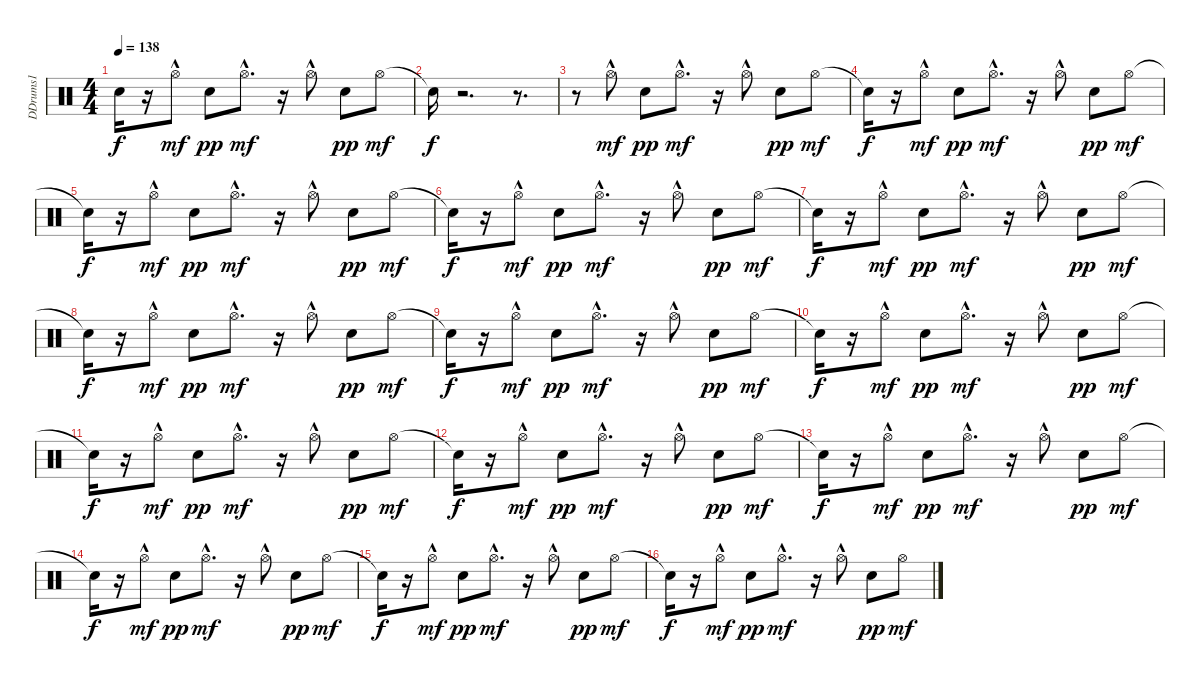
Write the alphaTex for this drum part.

\track ("DDrums1" "DDrums1") {instrument percussion}
\staff {score}
\articulation defaults
\ts (4 4)
\tempo 138
\clef neutral
\ks c "Snare (hit)"{t}.16{dy f}
r.16 "Hi-Hat (open)"{hac}.8{dy mf} "Electric Snare (hit)".8{dy pp} "Hi-Hat (open)"{hac}.8{d dy mf} r.16 "Hi-Hat (open)"{hac}.8 "Electric Snare (hit)".8{dy pp} "Hi-Hat (open)".8{dy mf} |
"Snare (hit)"{t}.16{dy f} r.2{d} r.8{d} |
r.8 "Hi-Hat (open)"{hac}.8{dy mf} "Electric Snare (hit)".8{dy pp} "Hi-Hat (open)"{hac}.8{d dy mf} r.16 "Hi-Hat (open)"{hac}.8 "Electric Snare (hit)".8{dy pp} "Hi-Hat (open)".8{dy mf} |
"Snare (hit)"{t}.16{dy f} r.16 "Hi-Hat (open)"{hac}.8{dy mf} "Electric Snare (hit)".8{dy pp} "Hi-Hat (open)"{hac}.8{d dy mf} r.16 "Hi-Hat (open)"{hac}.8 "Electric Snare (hit)".8{dy pp} "Hi-Hat (open)".8{dy mf} |
"Snare (hit)"{t}.16{dy f} r.16 "Hi-Hat (open)"{hac}.8{dy mf} "Electric Snare (hit)".8{dy pp} "Hi-Hat (open)"{hac}.8{d dy mf} r.16 "Hi-Hat (open)"{hac}.8 "Electric Snare (hit)".8{dy pp} "Hi-Hat (open)".8{dy mf} |
"Snare (hit)"{t}.16{dy f} r.16 "Hi-Hat (open)"{hac}.8{dy mf} "Electric Snare (hit)".8{dy pp} "Hi-Hat (open)"{hac}.8{d dy mf} r.16 "Hi-Hat (open)"{hac}.8 "Electric Snare (hit)".8{dy pp} "Hi-Hat (open)".8{dy mf} |
"Snare (hit)"{t}.16{dy f} r.16 "Hi-Hat (open)"{hac}.8{dy mf} "Electric Snare (hit)".8{dy pp} "Hi-Hat (open)"{hac}.8{d dy mf} r.16 "Hi-Hat (open)"{hac}.8 "Electric Snare (hit)".8{dy pp} "Hi-Hat (open)".8{dy mf} |
"Snare (hit)"{t}.16{dy f} r.16 "Hi-Hat (open)"{hac}.8{dy mf} "Electric Snare (hit)".8{dy pp} "Hi-Hat (open)"{hac}.8{d dy mf} r.16 "Hi-Hat (open)"{hac}.8 "Electric Snare (hit)".8{dy pp} "Hi-Hat (open)".8{dy mf} |
"Snare (hit)"{t}.16{dy f} r.16 "Hi-Hat (open)"{hac}.8{dy mf} "Electric Snare (hit)".8{dy pp} "Hi-Hat (open)"{hac}.8{d dy mf} r.16 "Hi-Hat (open)"{hac}.8 "Electric Snare (hit)".8{dy pp} "Hi-Hat (open)".8{dy mf} |
"Snare (hit)"{t}.16{dy f} r.16 "Hi-Hat (open)"{hac}.8{dy mf} "Electric Snare (hit)".8{dy pp} "Hi-Hat (open)"{hac}.8{d dy mf} r.16 "Hi-Hat (open)"{hac}.8 "Electric Snare (hit)".8{dy pp} "Hi-Hat (open)".8{dy mf} |
"Snare (hit)"{t}.16{dy f} r.16 "Hi-Hat (open)"{hac}.8{dy mf} "Electric Snare (hit)".8{dy pp} "Hi-Hat (open)"{hac}.8{d dy mf} r.16 "Hi-Hat (open)"{hac}.8 "Electric Snare (hit)".8{dy pp} "Hi-Hat (open)".8{dy mf} |
"Snare (hit)"{t}.16{dy f} r.16 "Hi-Hat (open)"{hac}.8{dy mf} "Electric Snare (hit)".8{dy pp} "Hi-Hat (open)"{hac}.8{d dy mf} r.16 "Hi-Hat (open)"{hac}.8 "Electric Snare (hit)".8{dy pp} "Hi-Hat (open)".8{dy mf} |
"Snare (hit)"{t}.16{dy f} r.16 "Hi-Hat (open)"{hac}.8{dy mf} "Electric Snare (hit)".8{dy pp} "Hi-Hat (open)"{hac}.8{d dy mf} r.16 "Hi-Hat (open)"{hac}.8 "Electric Snare (hit)".8{dy pp} "Hi-Hat (open)".8{dy mf} |
"Snare (hit)"{t}.16{dy f} r.16 "Hi-Hat (open)"{hac}.8{dy mf} "Electric Snare (hit)".8{dy pp} "Hi-Hat (open)"{hac}.8{d dy mf} r.16 "Hi-Hat (open)"{hac}.8 "Electric Snare (hit)".8{dy pp} "Hi-Hat (open)".8{dy mf} |
"Snare (hit)"{t}.16{dy f} r.16 "Hi-Hat (open)"{hac}.8{dy mf} "Electric Snare (hit)".8{dy pp} "Hi-Hat (open)"{hac}.8{d dy mf} r.16 "Hi-Hat (open)"{hac}.8 "Electric Snare (hit)".8{dy pp} "Hi-Hat (open)".8{dy mf} |
"Snare (hit)"{t}.16{dy f} r.16 "Hi-Hat (open)"{hac}.8{dy mf} "Electric Snare (hit)".8{dy pp} "Hi-Hat (open)"{hac}.8{d dy mf} r.16 "Hi-Hat (open)"{hac}.8 "Electric Snare (hit)".8{dy pp} "Hi-Hat (open)".8{dy mf}
